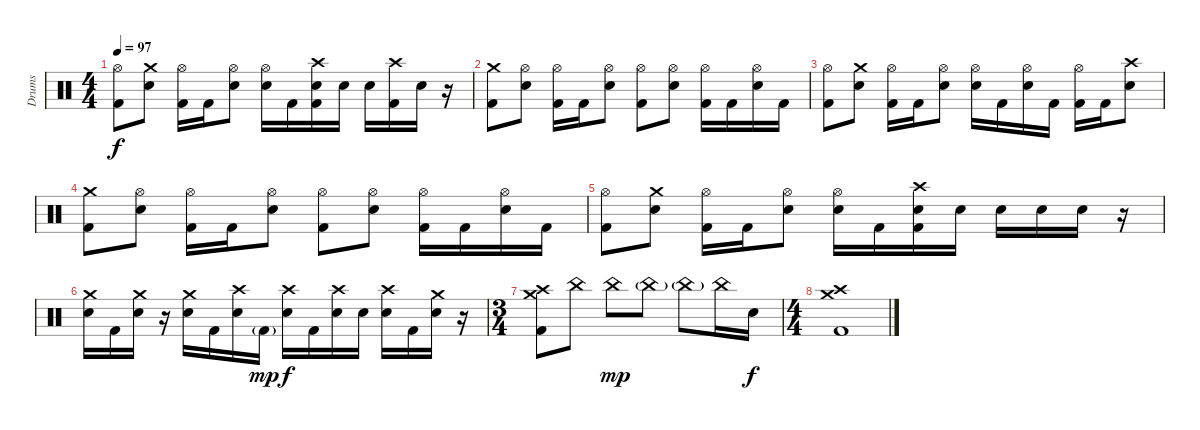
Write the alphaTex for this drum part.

\track ("Drums" "Drums") {instrument percussion}
\staff {score}
\articulation defaults
\ts (4 4)
\tempo 97
\clef neutral
\ks c
("Hi-Hat (open)" "Kick (hit) 2").8{dy f} ("Crash medium (hit)" "Snare (hit) 2").8 ("Hi-Hat (open)" "Kick (hit) 2").16 "Kick (hit) 2".16 ("Hi-Hat (open)" "Snare (hit) 2").8 ("Hi-Hat (open)" "Snare (hit) 2").16 "Kick (hit) 2".16 ("Crash high (hit)" "Snare (hit) 2" "Kick (hit) 2").16 "Snare (hit) 2".16 "Snare (hit) 2".16 ("Crash high (hit)" "Kick (hit) 2").16 "Snare (hit) 2".16 r.16 |
("Crash medium (hit)" "Kick (hit) 2").8 ("Hi-Hat (open)" "Snare (hit) 2").8 ("Hi-Hat (open)" "Kick (hit) 2").16 "Kick (hit) 2".16 ("Hi-Hat (open)" "Snare (hit) 2").8 ("Hi-Hat (open)" "Kick (hit) 2").8 ("Hi-Hat (open)" "Snare (hit) 2").8 ("Hi-Hat (open)" "Kick (hit) 2").16 "Kick (hit) 2".16 ("Hi-Hat (open)" "Snare (hit) 2").16 "Kick (hit) 2".16 |
("Hi-Hat (open)" "Kick (hit) 2").8 ("Crash medium (hit)" "Snare (hit) 2").8 ("Hi-Hat (open)" "Kick (hit) 2").16 "Kick (hit) 2".16 ("Hi-Hat (open)" "Snare (hit) 2").8 ("Hi-Hat (open)" "Snare (hit) 2").16 "Kick (hit) 2".16 ("Hi-Hat (open)" "Snare (hit) 2").16 "Kick (hit) 2".16 ("Hi-Hat (open)" "Kick (hit) 2").16 "Kick (hit) 2".16 ("Crash high (hit)" "Snare (hit) 2").8 |
("Crash medium (hit)" "Kick (hit) 2").8 ("Hi-Hat (open)" "Snare (hit) 2").8 ("Hi-Hat (open)" "Kick (hit) 2").16 "Kick (hit) 2".16 ("Hi-Hat (open)" "Snare (hit) 2").8 ("Hi-Hat (open)" "Kick (hit) 2").8 ("Hi-Hat (open)" "Snare (hit) 2").8 ("Hi-Hat (open)" "Kick (hit) 2").16 "Kick (hit) 2".16 ("Hi-Hat (open)" "Snare (hit) 2").16 "Kick (hit) 2".16 |
("Hi-Hat (open)" "Kick (hit) 2").8 ("Crash medium (hit)" "Snare (hit) 2").8 ("Hi-Hat (open)" "Kick (hit) 2").16 "Kick (hit) 2".16 ("Hi-Hat (open)" "Snare (hit) 2").8 ("Hi-Hat (open)" "Snare (hit) 2").16 "Kick (hit) 2".16 ("Crash high (hit)" "Snare (hit) 2" "Kick (hit) 2").16 "Snare (hit) 2".16 "Snare (hit) 2".16 "Snare (hit) 2".16 "Snare (hit) 2".16 r.16 |
("Crash medium (hit)" "Snare (hit) 2").16 "Kick (hit) 2".16 ("Crash medium (hit)" "Snare (hit) 2").16 r.16 ("Crash medium (hit)" "Snare (hit) 2").16 "Kick (hit) 2".16 ("Crash high (hit)" "Snare (hit) 2").16 "Kick (hit) 2"{g}.16{dy mp} ("Crash high (hit)" "Snare (hit) 2").16{dy f} "Kick (hit) 2".16 ("Crash high (hit)" "Snare (hit) 2").16 "Snare (hit) 2".16 ("Crash high (hit)" "Snare (hit) 2").16 "Kick (hit) 2".16 ("Crash medium (hit)" "Snare (hit) 2").16 r.16 |
\ts (3 4)
("Crash high (hit)" "Crash medium (hit)" "Kick (hit) 2").8 "China (hit)".8 "China (hit)".8{dy mp} "China (hit)"{g}.8 "China (hit)"{g}.8 "China (hit)".16 "Snare (hit) 2".16{dy f} |
\ts (4 4)
("Crash high (hit)" "Crash medium (hit)" "Kick (hit) 2").1
